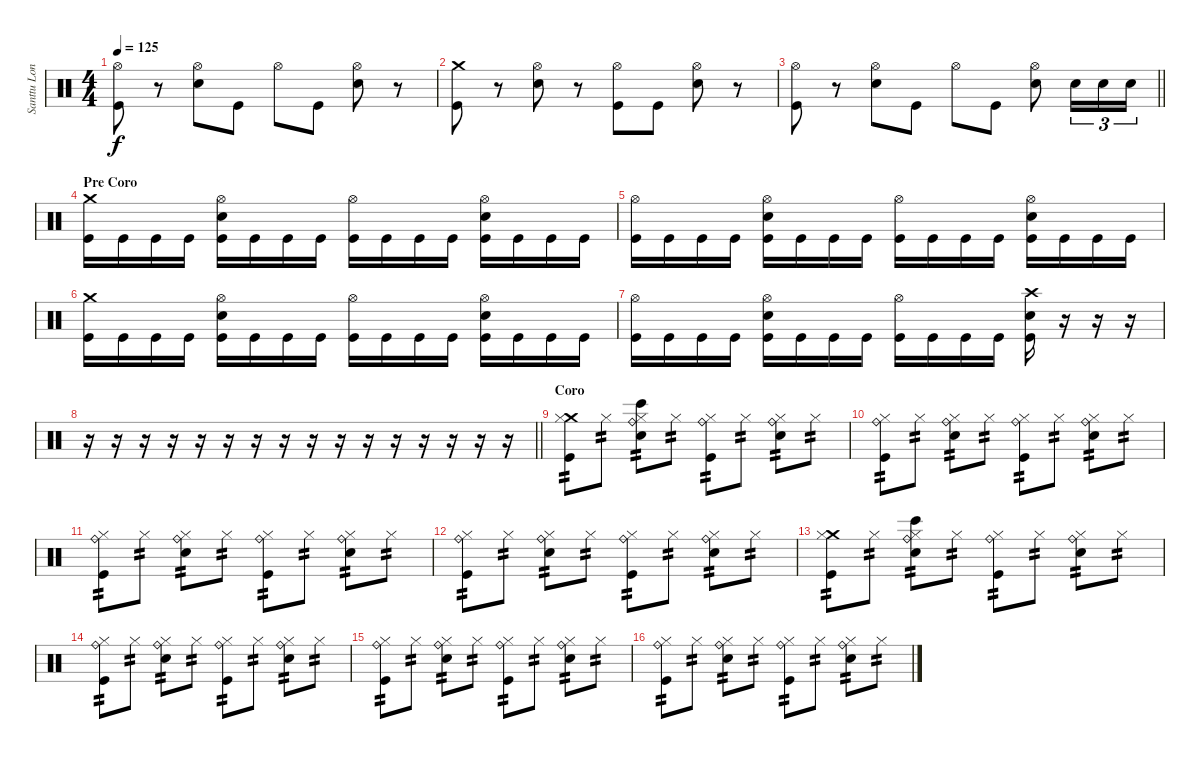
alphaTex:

\track ("Santtu Lonka" "Santtu Lon") {instrument percussion}
\staff {score}
\articulation defaults
\ts (4 4)
\tempo 125
\clef neutral
\ks c
("Hi-Hat (open)" "Kick (hit)").8{dy f} r.8 ("Hi-Hat (open)" "Electric Snare (hit)").8 "Kick (hit)".8 "Hi-Hat (open)".8 "Kick (hit)".8 ("Hi-Hat (open)" "Electric Snare (hit)").8 r.8 |
("Crash medium (hit)" "Kick (hit)").8 r.8 ("Hi-Hat (open)" "Electric Snare (hit)").8 r.8 ("Hi-Hat (open)" "Kick (hit)").8 "Kick (hit)".8 ("Hi-Hat (open)" "Electric Snare (hit)").8 r.8 |
\barLineRight lightlight
("Hi-Hat (open)" "Kick (hit)").8 r.8 ("Hi-Hat (open)" "Electric Snare (hit)").8 "Kick (hit)".8 "Hi-Hat (open)".8 "Kick (hit)".8 ("Hi-Hat (open)" "Electric Snare (hit)").8 "Electric Snare (hit)".16{tu (3 2)} "Electric Snare (hit)".16{tu (3 2)} "Electric Snare (hit)".16{tu (3 2)} |
\section ("" "Pre Coro")
("Crash medium (hit)" "Kick (hit)").16 "Kick (hit)".16 "Kick (hit)".16 "Kick (hit)".16 ("Hi-Hat (open)" "Electric Snare (hit)" "Kick (hit)").16 "Kick (hit)".16 "Kick (hit)".16 "Kick (hit)".16 ("Hi-Hat (open)" "Kick (hit)").16 "Kick (hit)".16 "Kick (hit)".16 "Kick (hit)".16 ("Hi-Hat (open)" "Electric Snare (hit)" "Kick (hit)").16 "Kick (hit)".16 "Kick (hit)".16 "Kick (hit)".16 |
("Hi-Hat (open)" "Kick (hit)").16 "Kick (hit)".16 "Kick (hit)".16 "Kick (hit)".16 ("Hi-Hat (open)" "Electric Snare (hit)" "Kick (hit)").16 "Kick (hit)".16 "Kick (hit)".16 "Kick (hit)".16 ("Hi-Hat (open)" "Kick (hit)").16 "Kick (hit)".16 "Kick (hit)".16 "Kick (hit)".16 ("Hi-Hat (open)" "Electric Snare (hit)" "Kick (hit)").16 "Kick (hit)".16 "Kick (hit)".16 "Kick (hit)".16 |
("Crash medium (hit)" "Kick (hit)").16 "Kick (hit)".16 "Kick (hit)".16 "Kick (hit)".16 ("Hi-Hat (open)" "Electric Snare (hit)" "Kick (hit)").16 "Kick (hit)".16 "Kick (hit)".16 "Kick (hit)".16 ("Hi-Hat (open)" "Kick (hit)").16 "Kick (hit)".16 "Kick (hit)".16 "Kick (hit)".16 ("Hi-Hat (open)" "Electric Snare (hit)" "Kick (hit)").16 "Kick (hit)".16 "Kick (hit)".16 "Kick (hit)".16 |
("Hi-Hat (open)" "Kick (hit)").16 "Kick (hit)".16 "Kick (hit)".16 "Kick (hit)".16 ("Hi-Hat (open)" "Electric Snare (hit)" "Kick (hit)").16 "Kick (hit)".16 "Kick (hit)".16 "Kick (hit)".16 ("Hi-Hat (open)" "Kick (hit)").16 "Kick (hit)".16 "Kick (hit)".16 "Kick (hit)".16 ("Crash high (hit)" "Electric Snare (hit)" "Kick (hit)").16 r.16 r.16 r.16 |
\barLineRight lightlight
r.16 r.16 r.16 r.16 r.16 r.16 r.16 r.16 r.16 r.16 r.16 r.16 r.16 r.16 r.16 r.16 |
\section ("" "Coro")
("Crash medium (hit)" "Hi-Hat (closed)" "Kick (hit)").8{tp 2} "Hi-Hat (closed)".8{tp 2} ("Ride (bell)" "Hi-Hat (closed)" "Electric Snare (hit)" "Bongo High (hit)").8{tp 2} "Hi-Hat (closed)".8{tp 2} ("Ride (bell)" "Hi-Hat (closed)" "Kick (hit)").8{tp 2} "Hi-Hat (closed)".8{tp 2} ("Ride (bell)" "Hi-Hat (closed)" "Electric Snare (hit)").8{tp 2} "Hi-Hat (closed)".8{tp 2} |
("Ride (bell)" "Hi-Hat (closed)" "Kick (hit)").8{tp 2} "Hi-Hat (closed)".8{tp 2} ("Ride (bell)" "Hi-Hat (closed)" "Electric Snare (hit)").8{tp 2} "Hi-Hat (closed)".8{tp 2} ("Ride (bell)" "Hi-Hat (closed)" "Kick (hit)").8{tp 2} "Hi-Hat (closed)".8{tp 2} ("Ride (bell)" "Hi-Hat (closed)" "Electric Snare (hit)").8{tp 2} "Hi-Hat (closed)".8{tp 2} |
("Ride (bell)" "Hi-Hat (closed)" "Kick (hit)").8{tp 2} "Hi-Hat (closed)".8{tp 2} ("Ride (bell)" "Hi-Hat (closed)" "Electric Snare (hit)").8{tp 2} "Hi-Hat (closed)".8{tp 2} ("Ride (bell)" "Hi-Hat (closed)" "Kick (hit)").8{tp 2} "Hi-Hat (closed)".8{tp 2} ("Ride (bell)" "Hi-Hat (closed)" "Electric Snare (hit)").8{tp 2} "Hi-Hat (closed)".8{tp 2} |
("Ride (bell)" "Hi-Hat (closed)" "Kick (hit)").8{tp 2} "Hi-Hat (closed)".8{tp 2} ("Ride (bell)" "Hi-Hat (closed)" "Electric Snare (hit)").8{tp 2} "Hi-Hat (closed)".8{tp 2} ("Ride (bell)" "Hi-Hat (closed)" "Kick (hit)").8{tp 2} "Hi-Hat (closed)".8{tp 2} ("Ride (bell)" "Hi-Hat (closed)" "Electric Snare (hit)").8{tp 2} "Hi-Hat (closed)".8{tp 2} |
("Crash medium (hit)" "Hi-Hat (closed)" "Kick (hit)").8{tp 2} "Hi-Hat (closed)".8{tp 2} ("Ride (bell)" "Hi-Hat (closed)" "Electric Snare (hit)" "Bongo High (hit)").8{tp 2} "Hi-Hat (closed)".8{tp 2} ("Ride (bell)" "Hi-Hat (closed)" "Kick (hit)").8{tp 2} "Hi-Hat (closed)".8{tp 2} ("Ride (bell)" "Hi-Hat (closed)" "Electric Snare (hit)").8{tp 2} "Hi-Hat (closed)".8{tp 2} |
("Ride (bell)" "Hi-Hat (closed)" "Kick (hit)").8{tp 2} "Hi-Hat (closed)".8{tp 2} ("Ride (bell)" "Hi-Hat (closed)" "Electric Snare (hit)").8{tp 2} "Hi-Hat (closed)".8{tp 2} ("Ride (bell)" "Hi-Hat (closed)" "Kick (hit)").8{tp 2} "Hi-Hat (closed)".8{tp 2} ("Ride (bell)" "Hi-Hat (closed)" "Electric Snare (hit)").8{tp 2} "Hi-Hat (closed)".8{tp 2} |
("Ride (bell)" "Hi-Hat (closed)" "Kick (hit)").8{tp 2} "Hi-Hat (closed)".8{tp 2} ("Ride (bell)" "Hi-Hat (closed)" "Electric Snare (hit)").8{tp 2} "Hi-Hat (closed)".8{tp 2} ("Ride (bell)" "Hi-Hat (closed)" "Kick (hit)").8{tp 2} "Hi-Hat (closed)".8{tp 2} ("Ride (bell)" "Hi-Hat (closed)" "Electric Snare (hit)").8{tp 2} "Hi-Hat (closed)".8{tp 2} |
("Ride (bell)" "Hi-Hat (closed)" "Kick (hit)").8{tp 2} "Hi-Hat (closed)".8{tp 2} ("Ride (bell)" "Hi-Hat (closed)" "Electric Snare (hit)").8{tp 2} "Hi-Hat (closed)".8{tp 2} ("Ride (bell)" "Hi-Hat (closed)" "Kick (hit)").8{tp 2} "Hi-Hat (closed)".8{tp 2} ("Ride (bell)" "Hi-Hat (closed)" "Electric Snare (hit)").8{tp 2} "Hi-Hat (closed)".8{tp 2}
